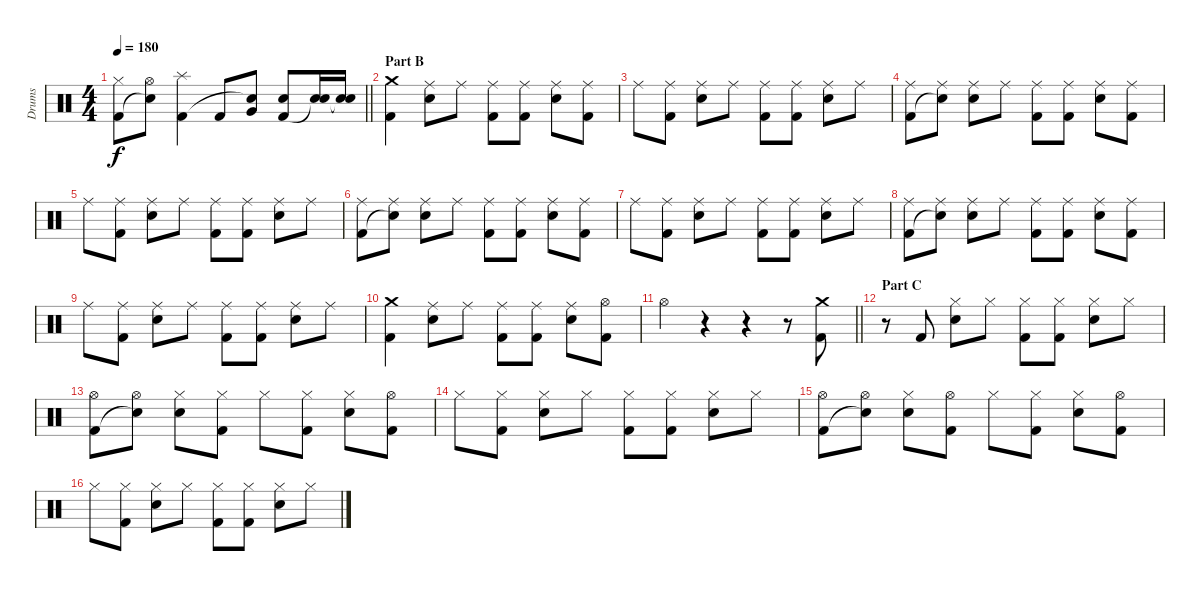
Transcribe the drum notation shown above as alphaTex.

\track ("Drums" "Drums") {instrument percussion}
\staff {score}
\articulation defaults
\ts (4 4)
\tempo 180
\clef neutral
\barLineRight lightlight
\ks c
("Hi-Hat (closed)" "Kick (hit) 2").8{dy f} ("Hi-Hat (open)" "Snare (hit)"{t}).8 ("Splash (hit)" "Kick (hit) 2").4 "Kick (hit) 2".8 ("Very Low Tom (hit)" "Snare (hit)"{t}).8 ("Electric Snare (hit)" "Kick (hit) 2").8 ("Electric Snare (hit)" "Snare (hit)"{t}).16 ("Electric Snare (hit)" "Snare (hit)"{t}).16 |
\section ("" "Part B")
("Crash medium (hit)" "Kick (hit) 2").4 ("Ride (middle)" "Electric Snare (hit)").8 "Ride (middle)".8 ("Ride (middle)" "Kick (hit) 2").8 ("Ride (middle)" "Kick (hit) 2").8 ("Ride (middle)" "Electric Snare (hit)").8 ("Ride (middle)" "Kick (hit) 2").8 |
"Ride (middle)".8 ("Ride (middle)" "Kick (hit) 2").8 ("Ride (middle)" "Electric Snare (hit)").8 "Ride (middle)".8 ("Ride (middle)" "Kick (hit) 2").8 ("Ride (middle)" "Kick (hit) 2").8 ("Ride (middle)" "Electric Snare (hit)").8 "Ride (middle)".8 |
("Ride (middle)" "Kick (hit) 2").8 ("Ride (middle)" "Snare (hit)"{t}).8 ("Ride (middle)" "Electric Snare (hit)").8 "Ride (middle)".8 ("Ride (middle)" "Kick (hit) 2").8 ("Ride (middle)" "Kick (hit) 2").8 ("Ride (middle)" "Electric Snare (hit)").8 ("Ride (middle)" "Kick (hit) 2").8 |
"Ride (middle)".8 ("Ride (middle)" "Kick (hit) 2").8 ("Ride (middle)" "Electric Snare (hit)").8 "Ride (middle)".8 ("Ride (middle)" "Kick (hit) 2").8 ("Ride (middle)" "Kick (hit) 2").8 ("Ride (middle)" "Electric Snare (hit)").8 "Ride (middle)".8 |
("Ride (middle)" "Kick (hit) 2").8 ("Ride (middle)" "Snare (hit)"{t}).8 ("Ride (middle)" "Electric Snare (hit)").8 "Ride (middle)".8 ("Ride (middle)" "Kick (hit) 2").8 ("Ride (middle)" "Kick (hit) 2").8 ("Ride (middle)" "Electric Snare (hit)").8 ("Ride (middle)" "Kick (hit) 2").8 |
"Ride (middle)".8 ("Ride (middle)" "Kick (hit) 2").8 ("Ride (middle)" "Electric Snare (hit)").8 "Ride (middle)".8 ("Ride (middle)" "Kick (hit) 2").8 ("Ride (middle)" "Kick (hit) 2").8 ("Ride (middle)" "Electric Snare (hit)").8 "Ride (middle)".8 |
("Ride (middle)" "Kick (hit) 2").8 ("Ride (middle)" "Snare (hit)"{t}).8 ("Ride (middle)" "Electric Snare (hit)").8 "Ride (middle)".8 ("Ride (middle)" "Kick (hit) 2").8 ("Ride (middle)" "Kick (hit) 2").8 ("Ride (middle)" "Electric Snare (hit)").8 ("Ride (middle)" "Kick (hit) 2").8 |
"Ride (middle)".8 ("Ride (middle)" "Kick (hit) 2").8 ("Ride (middle)" "Electric Snare (hit)").8 "Ride (middle)".8 ("Ride (middle)" "Kick (hit) 2").8 ("Ride (middle)" "Kick (hit) 2").8 ("Ride (middle)" "Electric Snare (hit)").8 "Ride (middle)".8 |
("Crash medium (hit)" "Kick (hit) 2").4 ("Ride (middle)" "Electric Snare (hit)").8 "Ride (middle)".8 ("Ride (middle)" "Kick (hit) 2").8 ("Ride (middle)" "Kick (hit) 2").8 ("Ride (middle)" "Electric Snare (hit)").8 ("Hi-Hat (open)" "Kick (hit) 2").8 |
\barLineRight lightlight "Hi-Hat (open)".4
r.4 r.4 r.8 ("Crash medium (hit)" "Kick (hit) 2").8 |
\section ("" "Part C")
r.8 "Kick (hit) 2".8 ("Hi-Hat (closed)" "Electric Snare (hit)").8 "Hi-Hat (closed)".8 ("Hi-Hat (closed)" "Kick (hit) 2").8 ("Hi-Hat (closed)" "Kick (hit) 2").8 ("Hi-Hat (closed)" "Electric Snare (hit)").8 "Hi-Hat (closed)".8 |
("Hi-Hat (open)" "Kick (hit) 2").8 ("Hi-Hat (open)" "Snare (hit)"{t}).8 ("Hi-Hat (closed)" "Electric Snare (hit)").8 ("Hi-Hat (closed)" "Kick (hit) 2").8 "Hi-Hat (closed)".8 ("Hi-Hat (closed)" "Kick (hit) 2").8 ("Hi-Hat (closed)" "Electric Snare (hit)").8 ("Hi-Hat (open)" "Kick (hit) 2").8 |
"Hi-Hat (closed)".8 ("Hi-Hat (closed)" "Kick (hit) 2").8 ("Hi-Hat (closed)" "Electric Snare (hit)").8 "Hi-Hat (closed)".8 ("Hi-Hat (closed)" "Kick (hit) 2").8 ("Hi-Hat (closed)" "Kick (hit) 2").8 ("Hi-Hat (closed)" "Electric Snare (hit)").8 "Hi-Hat (closed)".8 |
("Hi-Hat (open)" "Kick (hit) 2").8 ("Hi-Hat (open)" "Snare (hit)"{t}).8 ("Hi-Hat (closed)" "Electric Snare (hit)").8 ("Hi-Hat (open)" "Kick (hit) 2").8 "Hi-Hat (closed)".8 ("Hi-Hat (closed)" "Kick (hit) 2").8 ("Hi-Hat (closed)" "Electric Snare (hit)").8 ("Hi-Hat (open)" "Kick (hit) 2").8 |
"Hi-Hat (closed)".8 ("Hi-Hat (closed)" "Kick (hit) 2").8 ("Hi-Hat (closed)" "Electric Snare (hit)").8 "Hi-Hat (closed)".8 ("Hi-Hat (closed)" "Kick (hit) 2").8 ("Hi-Hat (closed)" "Kick (hit) 2").8 ("Hi-Hat (closed)" "Electric Snare (hit)").8 "Hi-Hat (closed)".8
